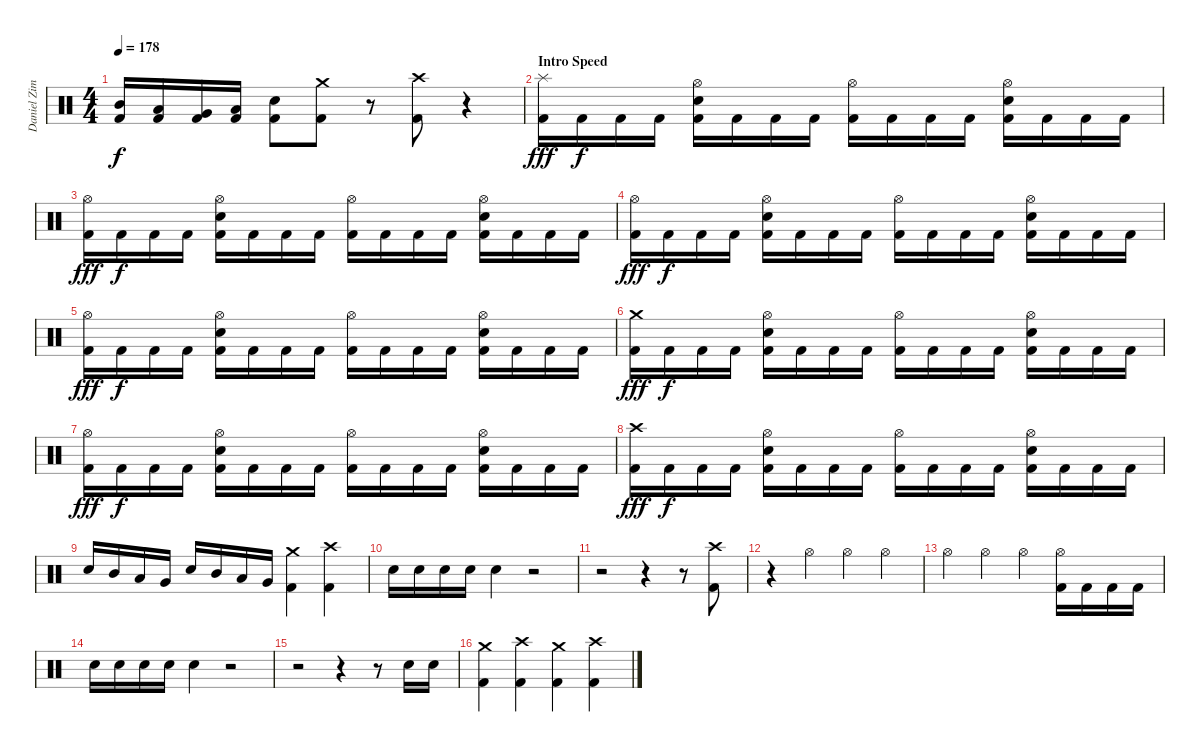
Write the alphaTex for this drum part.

\track ("Daniel Zimmermann" "Daniel Zim") {instrument percussion}
\staff {score}
\articulation defaults
\ts (4 4)
\tempo 178
\clef neutral
\ks c
("Kick (hit) 2" "Mid Tom (hit)").16{dy f} ("Kick (hit) 2" "Low Tom (hit)").16 ("Kick (hit) 2" "Very Low Tom (hit)").16 ("Kick (hit) 2" "Low Floor Tom (hit)").16 ("Kick (hit) 2" "Electric Snare (hit)").8 ("Kick (hit) 2" "Crash medium (hit)").8 r.8 ("Kick (hit) 2" "Crash high (hit)").8 r.4 |
\section ("" "Intro Speed")
("Kick (hit) 2" "Splash (hit)").16{dy fff} "Kick (hit) 2".16{dy f} "Kick (hit) 2".16 "Kick (hit) 2".16 ("Kick (hit) 2" "Electric Snare (hit)" "Hi-Hat (open)").16 "Kick (hit) 2".16 "Kick (hit) 2".16 "Kick (hit) 2".16 ("Kick (hit) 2" "Hi-Hat (open)").16 "Kick (hit) 2".16 "Kick (hit) 2".16 "Kick (hit) 2".16 ("Kick (hit) 2" "Electric Snare (hit)" "Hi-Hat (open)").16 "Kick (hit) 2".16 "Kick (hit) 2".16 "Kick (hit) 2".16 |
("Kick (hit) 2" "Hi-Hat (open)").16{dy fff} "Kick (hit) 2".16{dy f} "Kick (hit) 2".16 "Kick (hit) 2".16 ("Kick (hit) 2" "Electric Snare (hit)" "Hi-Hat (open)").16 "Kick (hit) 2".16 "Kick (hit) 2".16 "Kick (hit) 2".16 ("Kick (hit) 2" "Hi-Hat (open)").16 "Kick (hit) 2".16 "Kick (hit) 2".16 "Kick (hit) 2".16 ("Kick (hit) 2" "Electric Snare (hit)" "Hi-Hat (open)").16 "Kick (hit) 2".16 "Kick (hit) 2".16 "Kick (hit) 2".16 |
("Kick (hit) 2" "Hi-Hat (open)").16{dy fff} "Kick (hit) 2".16{dy f} "Kick (hit) 2".16 "Kick (hit) 2".16 ("Kick (hit) 2" "Electric Snare (hit)" "Hi-Hat (open)").16 "Kick (hit) 2".16 "Kick (hit) 2".16 "Kick (hit) 2".16 ("Kick (hit) 2" "Hi-Hat (open)").16 "Kick (hit) 2".16 "Kick (hit) 2".16 "Kick (hit) 2".16 ("Kick (hit) 2" "Electric Snare (hit)" "Hi-Hat (open)").16 "Kick (hit) 2".16 "Kick (hit) 2".16 "Kick (hit) 2".16 |
("Kick (hit) 2" "Hi-Hat (open)").16{dy fff} "Kick (hit) 2".16{dy f} "Kick (hit) 2".16 "Kick (hit) 2".16 ("Kick (hit) 2" "Electric Snare (hit)" "Hi-Hat (open)").16 "Kick (hit) 2".16 "Kick (hit) 2".16 "Kick (hit) 2".16 ("Kick (hit) 2" "Hi-Hat (open)").16 "Kick (hit) 2".16 "Kick (hit) 2".16 "Kick (hit) 2".16 ("Kick (hit) 2" "Electric Snare (hit)" "Hi-Hat (open)").16 "Kick (hit) 2".16 "Kick (hit) 2".16 "Kick (hit) 2".16 |
("Kick (hit) 2" "Crash medium (hit)").16{dy fff} "Kick (hit) 2".16{dy f} "Kick (hit) 2".16 "Kick (hit) 2".16 ("Kick (hit) 2" "Electric Snare (hit)" "Hi-Hat (open)").16 "Kick (hit) 2".16 "Kick (hit) 2".16 "Kick (hit) 2".16 ("Kick (hit) 2" "Hi-Hat (open)").16 "Kick (hit) 2".16 "Kick (hit) 2".16 "Kick (hit) 2".16 ("Kick (hit) 2" "Electric Snare (hit)" "Hi-Hat (open)").16 "Kick (hit) 2".16 "Kick (hit) 2".16 "Kick (hit) 2".16 |
("Kick (hit) 2" "Hi-Hat (open)").16{dy fff} "Kick (hit) 2".16{dy f} "Kick (hit) 2".16 "Kick (hit) 2".16 ("Kick (hit) 2" "Electric Snare (hit)" "Hi-Hat (open)").16 "Kick (hit) 2".16 "Kick (hit) 2".16 "Kick (hit) 2".16 ("Kick (hit) 2" "Hi-Hat (open)").16 "Kick (hit) 2".16 "Kick (hit) 2".16 "Kick (hit) 2".16 ("Kick (hit) 2" "Electric Snare (hit)" "Hi-Hat (open)").16 "Kick (hit) 2".16 "Kick (hit) 2".16 "Kick (hit) 2".16 |
("Kick (hit) 2" "Crash high (hit)").16{dy fff} "Kick (hit) 2".16{dy f} "Kick (hit) 2".16 "Kick (hit) 2".16 ("Kick (hit) 2" "Electric Snare (hit)" "Hi-Hat (open)").16 "Kick (hit) 2".16 "Kick (hit) 2".16 "Kick (hit) 2".16 ("Kick (hit) 2" "Hi-Hat (open)").16 "Kick (hit) 2".16 "Kick (hit) 2".16 "Kick (hit) 2".16 ("Kick (hit) 2" "Electric Snare (hit)" "Hi-Hat (open)").16 "Kick (hit) 2".16 "Kick (hit) 2".16 "Kick (hit) 2".16 |
"Electric Snare (hit)".16 "Mid Tom (hit)".16 "Low Tom (hit)".16 "Very Low Tom (hit)".16 "Electric Snare (hit)".16 "Mid Tom (hit)".16 "Low Tom (hit)".16 "Very Low Tom (hit)".16 ("Kick (hit) 2" "Crash medium (hit)").4 ("Kick (hit) 2" "Crash high (hit)").4 |
"Electric Snare (hit)".16 "Electric Snare (hit)".16 "Electric Snare (hit)".16 "Electric Snare (hit)".16 "Electric Snare (hit)".4 r.2 |
r.2 r.4 r.8 ("Kick (hit) 2" "Crash high (hit)").8 |
r.4 "Hi-Hat (open)".4 "Hi-Hat (open)".4 "Hi-Hat (open)".4 |
"Hi-Hat (open)".4 "Hi-Hat (open)".4 "Hi-Hat (open)".4 ("Kick (hit) 2" "Hi-Hat (open)").16 "Kick (hit) 2".16 "Kick (hit) 2".16 "Kick (hit) 2".16 |
"Electric Snare (hit)".16 "Electric Snare (hit)".16 "Electric Snare (hit)".16 "Electric Snare (hit)".16 "Electric Snare (hit)".4 r.2 |
r.2 r.4 r.8 "Electric Snare (hit)".16 "Electric Snare (hit)".16 |
("Kick (hit) 2" "Crash medium (hit)").4 ("Kick (hit) 2" "Crash high (hit)").4 ("Kick (hit) 2" "Crash medium (hit)").4 ("Kick (hit) 2" "Crash high (hit)").4
